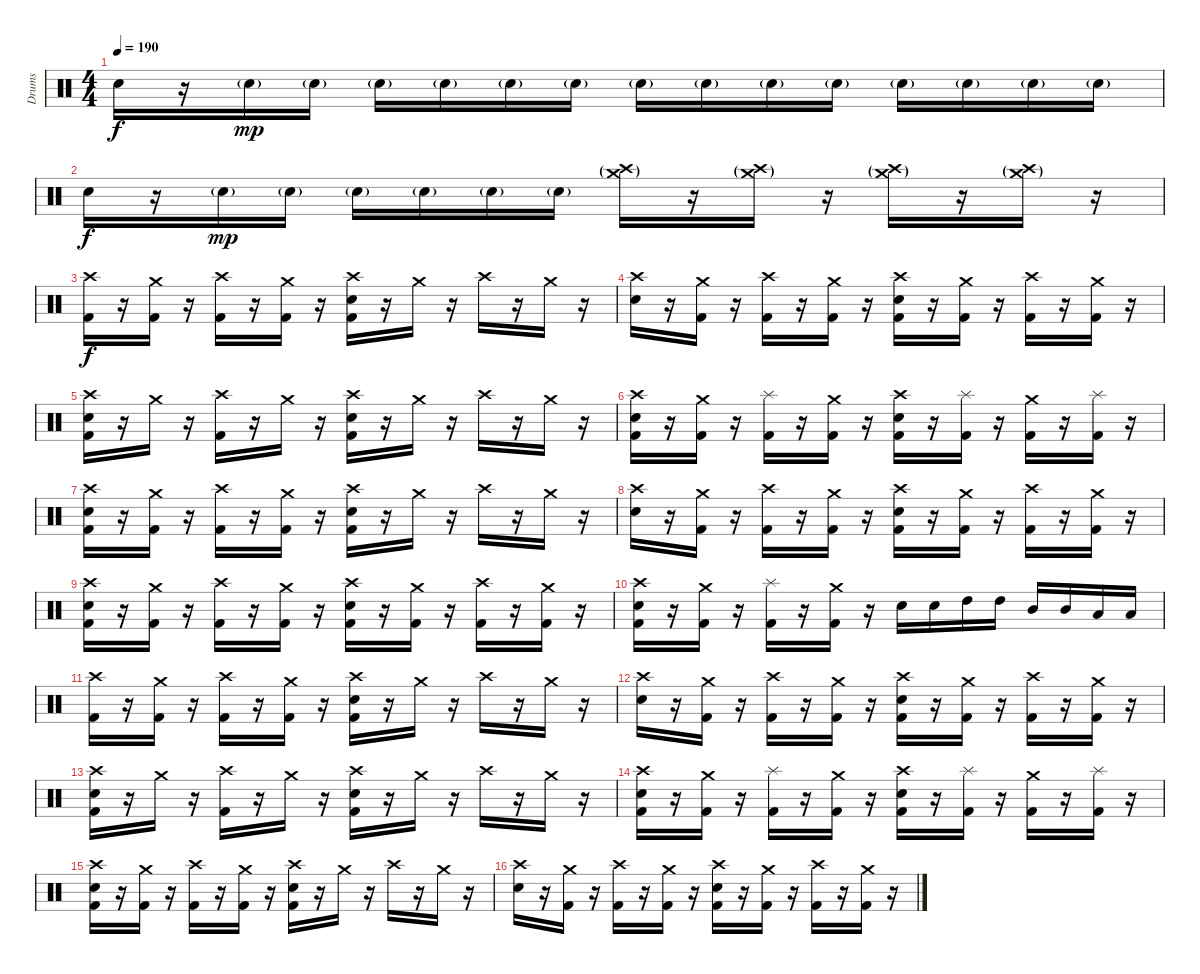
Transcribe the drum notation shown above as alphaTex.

\track ("Drums" "Drums") {instrument percussion}
\staff {score}
\articulation defaults
\ts (4 4)
\tempo 190
\clef neutral
\ks c "Electric Snare (hit)".16{dy f}
r.16 "Electric Snare (hit)"{g}.16{dy mp} "Electric Snare (hit)"{g}.16 "Electric Snare (hit)"{g}.16 "Electric Snare (hit)"{g}.16 "Electric Snare (hit)"{g}.16 "Electric Snare (hit)"{g}.16 "Electric Snare (hit)"{g}.16 "Electric Snare (hit)"{g}.16 "Electric Snare (hit)"{g}.16 "Electric Snare (hit)"{g}.16 "Electric Snare (hit)"{g}.16 "Electric Snare (hit)"{g}.16 "Electric Snare (hit)"{g}.16 "Electric Snare (hit)"{g}.16 |
"Electric Snare (hit)".16{dy f} r.16 "Electric Snare (hit)"{g}.16{dy mp} "Electric Snare (hit)"{g}.16 "Electric Snare (hit)"{g}.16 "Electric Snare (hit)"{g}.16 "Electric Snare (hit)"{g}.16 "Electric Snare (hit)"{g}.16 ("Crash high (hit)"{g} "Crash medium (hit)"{g}).16 r.16 ("Crash high (hit)"{g} "Crash medium (hit)"{g}).16 r.16 ("Crash high (hit)"{g} "Crash medium (hit)"{g}).16 r.16 ("Crash high (hit)"{g} "Crash medium (hit)"{g}).16 r.16 |
("Crash high (hit)" "Kick (hit) 2").16{dy f} r.16 ("Crash medium (hit)" "Kick (hit) 2").16 r.16 ("Crash high (hit)" "Kick (hit) 2").16 r.16 ("Crash medium (hit)" "Kick (hit) 2").16 r.16 ("Crash high (hit)" "Electric Snare (hit)" "Kick (hit) 2").16 r.16 "Crash medium (hit)".16 r.16 "Crash high (hit)".16 r.16 "Crash medium (hit)".16 r.16 |
("Crash high (hit)" "Electric Snare (hit)").16 r.16 ("Crash medium (hit)" "Kick (hit) 2").16 r.16 ("Crash high (hit)" "Kick (hit) 2").16 r.16 ("Crash medium (hit)" "Kick (hit) 2").16 r.16 ("Crash high (hit)" "Electric Snare (hit)" "Kick (hit) 2").16 r.16 ("Crash medium (hit)" "Kick (hit) 2").16 r.16 ("Crash high (hit)" "Kick (hit) 2").16 r.16 ("Crash medium (hit)" "Kick (hit) 2").16 r.16 |
("Crash high (hit)" "Electric Snare (hit)" "Kick (hit) 2").16 r.16 "Crash medium (hit)".16 r.16 ("Crash high (hit)" "Kick (hit) 2").16 r.16 "Crash medium (hit)".16 r.16 ("Crash high (hit)" "Electric Snare (hit)" "Kick (hit) 2").16 r.16 "Crash medium (hit)".16 r.16 "Crash high (hit)".16 r.16 "Crash medium (hit)".16 r.16 |
("Crash high (hit)" "Electric Snare (hit)" "Kick (hit) 2").16 r.16 ("Crash medium (hit)" "Kick (hit) 2").16 r.16 ("Splash (hit)" "Kick (hit) 2").16 r.16 ("Crash medium (hit)" "Kick (hit) 2").16 r.16 ("Crash high (hit)" "Electric Snare (hit)" "Kick (hit) 2").16 r.16 ("Splash (hit)" "Kick (hit) 2").16 r.16 ("Crash medium (hit)" "Kick (hit) 2").16 r.16 ("Splash (hit)" "Kick (hit) 2").16 r.16 |
("Crash high (hit)" "Electric Snare (hit)" "Kick (hit) 2").16 r.16 ("Crash medium (hit)" "Kick (hit) 2").16 r.16 ("Crash high (hit)" "Kick (hit) 2").16 r.16 ("Crash medium (hit)" "Kick (hit) 2").16 r.16 ("Crash high (hit)" "Electric Snare (hit)" "Kick (hit) 2").16 r.16 "Crash medium (hit)".16 r.16 "Crash high (hit)".16 r.16 "Crash medium (hit)".16 r.16 |
("Crash high (hit)" "Electric Snare (hit)").16 r.16 ("Crash medium (hit)" "Kick (hit) 2").16 r.16 ("Crash high (hit)" "Kick (hit) 2").16 r.16 ("Crash medium (hit)" "Kick (hit) 2").16 r.16 ("Crash high (hit)" "Electric Snare (hit)" "Kick (hit) 2").16 r.16 ("Crash medium (hit)" "Kick (hit) 2").16 r.16 ("Crash high (hit)" "Kick (hit) 2").16 r.16 ("Crash medium (hit)" "Kick (hit) 2").16 r.16 |
("Crash high (hit)" "Electric Snare (hit)" "Kick (hit) 2").16 r.16 ("Crash medium (hit)" "Kick (hit) 2").16 r.16 ("Crash high (hit)" "Kick (hit) 2").16 r.16 ("Crash medium (hit)" "Kick (hit) 2").16 r.16 ("Crash high (hit)" "Electric Snare (hit)" "Kick (hit) 2").16 r.16 ("Crash medium (hit)" "Kick (hit) 2").16 r.16 ("Crash high (hit)" "Kick (hit) 2").16 r.16 ("Crash medium (hit)" "Kick (hit) 2").16 r.16 |
("Crash high (hit)" "Electric Snare (hit)" "Kick (hit) 2").16 r.16 ("Crash medium (hit)" "Kick (hit) 2").16 r.16 ("Splash (hit)" "Kick (hit) 2").16 r.16 ("Crash medium (hit)" "Kick (hit) 2").16 r.16 "Electric Snare (hit)".16 "Electric Snare (hit)".16 "High Tom (hit)".16 "High Tom (hit)".16 "Mid Tom (hit)".16 "Mid Tom (hit)".16 "Low Tom (hit)".16 "Low Tom (hit)".16 |
("Crash high (hit)" "Kick (hit) 2").16 r.16 ("Crash medium (hit)" "Kick (hit) 2").16 r.16 ("Crash high (hit)" "Kick (hit) 2").16 r.16 ("Crash medium (hit)" "Kick (hit) 2").16 r.16 ("Crash high (hit)" "Electric Snare (hit)" "Kick (hit) 2").16 r.16 "Crash medium (hit)".16 r.16 "Crash high (hit)".16 r.16 "Crash medium (hit)".16 r.16 |
("Crash high (hit)" "Electric Snare (hit)").16 r.16 ("Crash medium (hit)" "Kick (hit) 2").16 r.16 ("Crash high (hit)" "Kick (hit) 2").16 r.16 ("Crash medium (hit)" "Kick (hit) 2").16 r.16 ("Crash high (hit)" "Electric Snare (hit)" "Kick (hit) 2").16 r.16 ("Crash medium (hit)" "Kick (hit) 2").16 r.16 ("Crash high (hit)" "Kick (hit) 2").16 r.16 ("Crash medium (hit)" "Kick (hit) 2").16 r.16 |
("Crash high (hit)" "Electric Snare (hit)" "Kick (hit) 2").16 r.16 "Crash medium (hit)".16 r.16 ("Crash high (hit)" "Kick (hit) 2").16 r.16 "Crash medium (hit)".16 r.16 ("Crash high (hit)" "Electric Snare (hit)" "Kick (hit) 2").16 r.16 "Crash medium (hit)".16 r.16 "Crash high (hit)".16 r.16 "Crash medium (hit)".16 r.16 |
("Crash high (hit)" "Electric Snare (hit)" "Kick (hit) 2").16 r.16 ("Crash medium (hit)" "Kick (hit) 2").16 r.16 ("Splash (hit)" "Kick (hit) 2").16 r.16 ("Crash medium (hit)" "Kick (hit) 2").16 r.16 ("Crash high (hit)" "Electric Snare (hit)" "Kick (hit) 2").16 r.16 ("Splash (hit)" "Kick (hit) 2").16 r.16 ("Crash medium (hit)" "Kick (hit) 2").16 r.16 ("Splash (hit)" "Kick (hit) 2").16 r.16 |
("Crash high (hit)" "Electric Snare (hit)" "Kick (hit) 2").16 r.16 ("Crash medium (hit)" "Kick (hit) 2").16 r.16 ("Crash high (hit)" "Kick (hit) 2").16 r.16 ("Crash medium (hit)" "Kick (hit) 2").16 r.16 ("Crash high (hit)" "Electric Snare (hit)" "Kick (hit) 2").16 r.16 "Crash medium (hit)".16 r.16 "Crash high (hit)".16 r.16 "Crash medium (hit)".16 r.16 |
("Crash high (hit)" "Electric Snare (hit)").16 r.16 ("Crash medium (hit)" "Kick (hit) 2").16 r.16 ("Crash high (hit)" "Kick (hit) 2").16 r.16 ("Crash medium (hit)" "Kick (hit) 2").16 r.16 ("Crash high (hit)" "Electric Snare (hit)" "Kick (hit) 2").16 r.16 ("Crash medium (hit)" "Kick (hit) 2").16 r.16 ("Crash high (hit)" "Kick (hit) 2").16 r.16 ("Crash medium (hit)" "Kick (hit) 2").16 r.16
